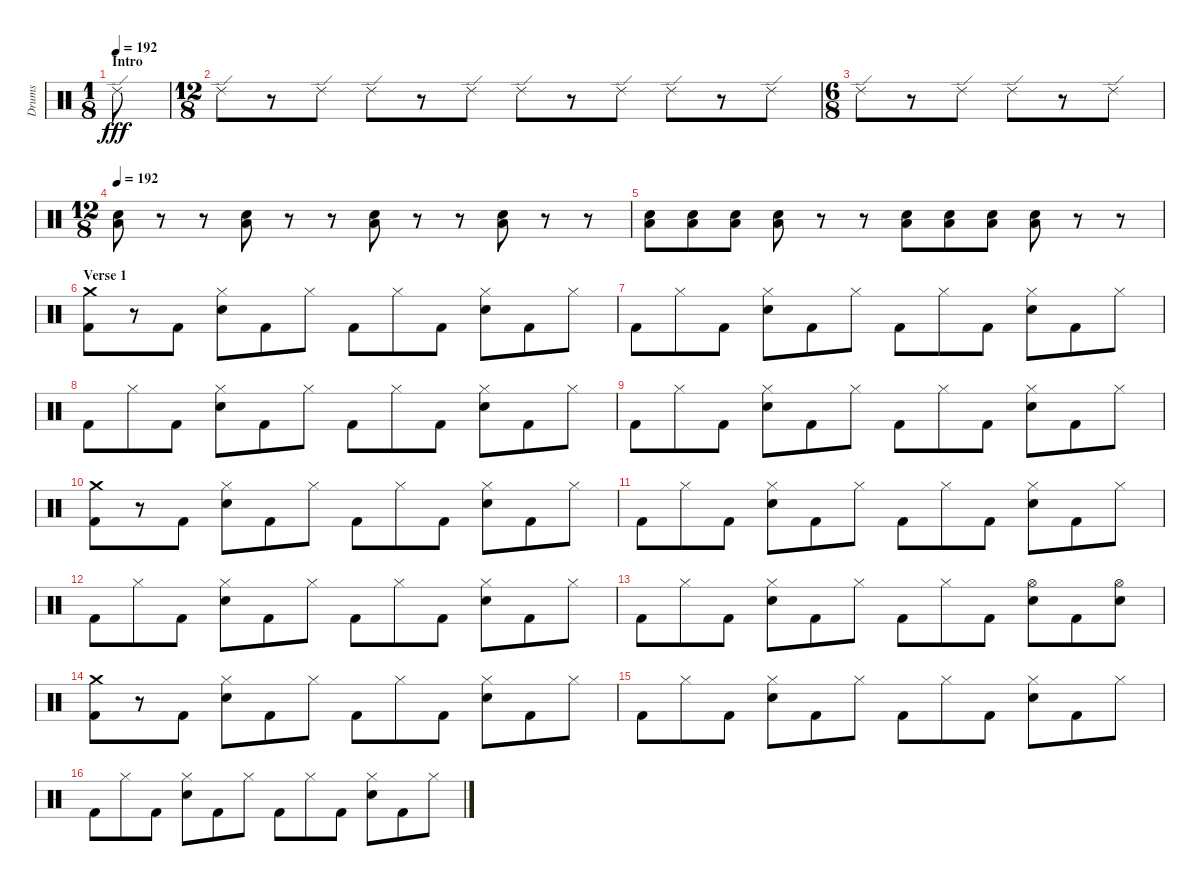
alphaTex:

\track ("Drums" "Drums") {instrument percussion}
\staff {score}
\articulation defaults
\ts (1 8)
\section ("" "Intro")
\tempo 192
\tempo 171
\tempo 192
\clef neutral
\ks c "Ride (edge) 2".8{dy fff}
|
\ts (12 8)
"Ride (edge) 2".8 r.8 "Ride (edge) 2".8 "Ride (edge) 2".8 r.8 "Ride (edge) 2".8 "Ride (edge) 2".8 r.8 "Ride (edge) 2".8 "Ride (edge) 2".8 r.8 "Ride (edge) 2".8 |
\ts (6 8)
"Ride (edge) 2".8 r.8 "Ride (edge) 2".8 "Ride (edge) 2".8 r.8 "Ride (edge) 2".8 |
\ts (12 8)
\tempo 192
("Electric Snare (hit)" "Low Floor Tom (hit)").8 r.8 r.8 ("Electric Snare (hit)" "Low Floor Tom (hit)").8 r.8 r.8 ("Electric Snare (hit)" "Low Floor Tom (hit)").8 r.8 r.8 ("Electric Snare (hit)" "Low Floor Tom (hit)").8 r.8 r.8 |
("Electric Snare (hit)" "Low Floor Tom (hit)").8 ("Electric Snare (hit)" "Low Floor Tom (hit)").8 ("Electric Snare (hit)" "Low Floor Tom (hit)").8 ("Electric Snare (hit)" "Low Floor Tom (hit)").8 r.8 r.8 ("Electric Snare (hit)" "Low Floor Tom (hit)").8 ("Electric Snare (hit)" "Low Floor Tom (hit)").8 ("Electric Snare (hit)" "Low Floor Tom (hit)").8 ("Electric Snare (hit)" "Low Floor Tom (hit)").8 r.8 r.8 |
\section ("" "Verse 1")
("Crash medium (hit)" "Kick (hit) 2").8 r.8 "Kick (hit) 2".8 ("Hi-Hat (closed)" "Electric Snare (hit)").8 "Kick (hit) 2".8 "Hi-Hat (closed)".8 "Kick (hit) 2".8 "Hi-Hat (closed)".8 "Kick (hit) 2".8 ("Hi-Hat (closed)" "Electric Snare (hit)").8 "Kick (hit) 2".8 "Hi-Hat (closed)".8 |
"Kick (hit) 2".8 "Hi-Hat (closed)".8 "Kick (hit) 2".8 ("Hi-Hat (closed)" "Electric Snare (hit)").8 "Kick (hit) 2".8 "Hi-Hat (closed)".8 "Kick (hit) 2".8 "Hi-Hat (closed)".8 "Kick (hit) 2".8 ("Hi-Hat (closed)" "Electric Snare (hit)").8 "Kick (hit) 2".8 "Hi-Hat (closed)".8 |
"Kick (hit) 2".8 "Hi-Hat (closed)".8 "Kick (hit) 2".8 ("Hi-Hat (closed)" "Electric Snare (hit)").8 "Kick (hit) 2".8 "Hi-Hat (closed)".8 "Kick (hit) 2".8 "Hi-Hat (closed)".8 "Kick (hit) 2".8 ("Hi-Hat (closed)" "Electric Snare (hit)").8 "Kick (hit) 2".8 "Hi-Hat (closed)".8 |
"Kick (hit) 2".8 "Hi-Hat (closed)".8 "Kick (hit) 2".8 ("Hi-Hat (closed)" "Electric Snare (hit)").8 "Kick (hit) 2".8 "Hi-Hat (closed)".8 "Kick (hit) 2".8 "Hi-Hat (closed)".8 "Kick (hit) 2".8 ("Hi-Hat (closed)" "Electric Snare (hit)").8 "Kick (hit) 2".8 "Hi-Hat (closed)".8 |
("Crash medium (hit)" "Kick (hit) 2").8 r.8 "Kick (hit) 2".8 ("Hi-Hat (closed)" "Electric Snare (hit)").8 "Kick (hit) 2".8 "Hi-Hat (closed)".8 "Kick (hit) 2".8 "Hi-Hat (closed)".8 "Kick (hit) 2".8 ("Hi-Hat (closed)" "Electric Snare (hit)").8 "Kick (hit) 2".8 "Hi-Hat (closed)".8 |
"Kick (hit) 2".8 "Hi-Hat (closed)".8 "Kick (hit) 2".8 ("Hi-Hat (closed)" "Electric Snare (hit)").8 "Kick (hit) 2".8 "Hi-Hat (closed)".8 "Kick (hit) 2".8 "Hi-Hat (closed)".8 "Kick (hit) 2".8 ("Hi-Hat (closed)" "Electric Snare (hit)").8 "Kick (hit) 2".8 "Hi-Hat (closed)".8 |
"Kick (hit) 2".8 "Hi-Hat (closed)".8 "Kick (hit) 2".8 ("Hi-Hat (closed)" "Electric Snare (hit)").8 "Kick (hit) 2".8 "Hi-Hat (closed)".8 "Kick (hit) 2".8 "Hi-Hat (closed)".8 "Kick (hit) 2".8 ("Hi-Hat (closed)" "Electric Snare (hit)").8 "Kick (hit) 2".8 "Hi-Hat (closed)".8 |
"Kick (hit) 2".8 "Hi-Hat (closed)".8 "Kick (hit) 2".8 ("Hi-Hat (closed)" "Electric Snare (hit)").8 "Kick (hit) 2".8 "Hi-Hat (closed)".8 "Kick (hit) 2".8 "Hi-Hat (closed)".8 "Kick (hit) 2".8 ("Hi-Hat (open)" "Electric Snare (hit)").8 "Kick (hit) 2".8 ("Hi-Hat (open)" "Electric Snare (hit)").8 |
("Crash medium (hit)" "Kick (hit) 2").8 r.8 "Kick (hit) 2".8 ("Hi-Hat (closed)" "Electric Snare (hit)").8 "Kick (hit) 2".8 "Hi-Hat (closed)".8 "Kick (hit) 2".8 "Hi-Hat (closed)".8 "Kick (hit) 2".8 ("Hi-Hat (closed)" "Electric Snare (hit)").8 "Kick (hit) 2".8 "Hi-Hat (closed)".8 |
"Kick (hit) 2".8 "Hi-Hat (closed)".8 "Kick (hit) 2".8 ("Hi-Hat (closed)" "Electric Snare (hit)").8 "Kick (hit) 2".8 "Hi-Hat (closed)".8 "Kick (hit) 2".8 "Hi-Hat (closed)".8 "Kick (hit) 2".8 ("Hi-Hat (closed)" "Electric Snare (hit)").8 "Kick (hit) 2".8 "Hi-Hat (closed)".8 |
"Kick (hit) 2".8 "Hi-Hat (closed)".8 "Kick (hit) 2".8 ("Hi-Hat (closed)" "Electric Snare (hit)").8 "Kick (hit) 2".8 "Hi-Hat (closed)".8 "Kick (hit) 2".8 "Hi-Hat (closed)".8 "Kick (hit) 2".8 ("Hi-Hat (closed)" "Electric Snare (hit)").8 "Kick (hit) 2".8 "Hi-Hat (closed)".8
